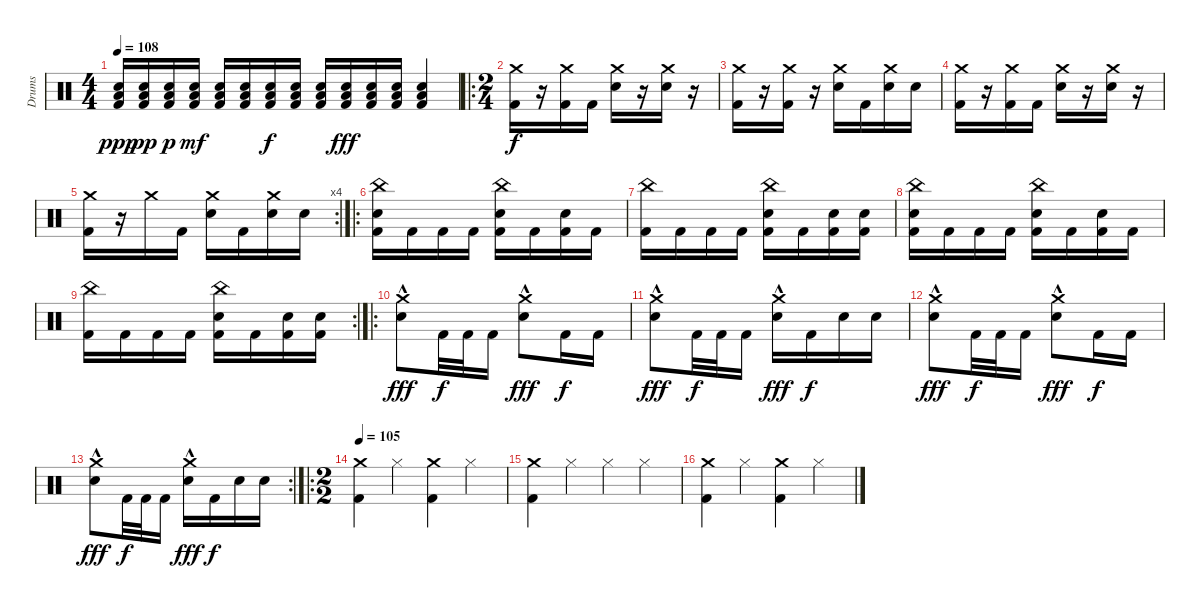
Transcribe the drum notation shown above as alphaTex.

\track ("Drums" "Drums") {instrument percussion}
\staff {score}
\articulation defaults
\ts (4 4)
\tempo 108
\clef neutral
\ks c
("Electric Snare (hit)" "Low Floor Tom (hit)" "Kick (hit) 2").16{dy ppp} ("Electric Snare (hit)" "Low Floor Tom (hit)" "Kick (hit) 2").16{dy pp} ("Electric Snare (hit)" "Low Floor Tom (hit)" "Kick (hit) 2").16{dy p} ("Electric Snare (hit)" "Low Floor Tom (hit)" "Kick (hit) 2").16{dy mf} ("Electric Snare (hit)" "Low Floor Tom (hit)" "Kick (hit) 2").16 ("Electric Snare (hit)" "Low Floor Tom (hit)" "Kick (hit) 2").16 ("Electric Snare (hit)" "Low Floor Tom (hit)" "Kick (hit) 2").16{dy f} ("Electric Snare (hit)" "Low Floor Tom (hit)" "Kick (hit) 2").16 ("Electric Snare (hit)" "Low Floor Tom (hit)" "Kick (hit) 2").16 ("Electric Snare (hit)" "Low Floor Tom (hit)" "Kick (hit) 2").16{dy fff} ("Electric Snare (hit)" "Low Floor Tom (hit)" "Kick (hit) 2").16 ("Electric Snare (hit)" "Low Floor Tom (hit)" "Kick (hit) 2").16 ("Electric Snare (hit)" "Low Floor Tom (hit)" "Kick (hit) 2").4 |
\ro
\ts (2 4)
("Crash medium (hit)" "Kick (hit) 2").16{dy f} r.16 ("Crash medium (hit)" "Kick (hit) 2").16 "Kick (hit) 2".16 ("Crash medium (hit)" "Electric Snare (hit)").16 r.16 ("Crash medium (hit)" "Electric Snare (hit)").16 r.16 |
("Crash medium (hit)" "Kick (hit) 2").16 r.16 ("Crash medium (hit)" "Kick (hit) 2").16 r.16 ("Crash medium (hit)" "Electric Snare (hit)").16 "Kick (hit) 2".16 ("Crash medium (hit)" "Electric Snare (hit)").16 "Electric Snare (hit)".16 |
("Crash medium (hit)" "Kick (hit) 2").16 r.16 ("Crash medium (hit)" "Kick (hit) 2").16 "Kick (hit) 2".16 ("Crash medium (hit)" "Electric Snare (hit)").16 r.16 ("Crash medium (hit)" "Electric Snare (hit)").16 r.16 |
\rc 4
("Crash medium (hit)" "Kick (hit) 2").16 r.16 "Crash medium (hit)".16 "Kick (hit) 2".16 ("Crash medium (hit)" "Electric Snare (hit)").16 "Kick (hit) 2".16 ("Crash medium (hit)" "Electric Snare (hit)").16 "Electric Snare (hit)".16 |
\ro
("China (hit)" "Electric Snare (hit)" "Kick (hit) 2").16 "Kick (hit) 2".16 "Kick (hit) 2".16 "Kick (hit) 2".16 ("China (hit)" "Electric Snare (hit)" "Kick (hit) 2").16 "Kick (hit) 2".16 ("Electric Snare (hit)" "Kick (hit) 2").16 "Kick (hit) 2".16 |
("China (hit)" "Kick (hit) 2").16 "Kick (hit) 2".16 "Kick (hit) 2".16 "Kick (hit) 2".16 ("China (hit)" "Electric Snare (hit)" "Kick (hit) 2").16 "Kick (hit) 2".16 ("Electric Snare (hit)" "Kick (hit) 2").16 ("Electric Snare (hit)" "Kick (hit) 2").16 |
("China (hit)" "Electric Snare (hit)" "Kick (hit) 2").16 "Kick (hit) 2".16 "Kick (hit) 2".16 "Kick (hit) 2".16 ("China (hit)" "Electric Snare (hit)" "Kick (hit) 2").16 "Kick (hit) 2".16 ("Electric Snare (hit)" "Kick (hit) 2").16 "Kick (hit) 2".16 |
\rc 2
("China (hit)" "Kick (hit) 2").16 "Kick (hit) 2".16 "Kick (hit) 2".16 "Kick (hit) 2".16 ("China (hit)" "Electric Snare (hit)" "Kick (hit) 2").16 "Kick (hit) 2".16 ("Electric Snare (hit)" "Kick (hit) 2").16 ("Electric Snare (hit)" "Kick (hit) 2").16 |
\ro
("Crash medium (hit)" "Electric Snare (hit)"{hac}).8{dy fff} "Kick (hit) 2".32{dy f} "Kick (hit) 2".32 "Kick (hit) 2".16 ("Crash medium (hit)" "Electric Snare (hit)"{hac}).8{dy fff} "Kick (hit) 2".16{dy f} "Kick (hit) 2".16 |
("Crash medium (hit)" "Electric Snare (hit)"{hac}).8{dy fff} "Kick (hit) 2".32{dy f} "Kick (hit) 2".32 "Kick (hit) 2".16 ("Crash medium (hit)" "Electric Snare (hit)"{hac}).16{dy fff} "Kick (hit) 2".16{dy f} "Electric Snare (hit)".16 "Electric Snare (hit)".16 |
("Crash medium (hit)" "Electric Snare (hit)"{hac}).8{dy fff} "Kick (hit) 2".32{dy f} "Kick (hit) 2".32 "Kick (hit) 2".16 ("Crash medium (hit)" "Electric Snare (hit)"{hac}).8{dy fff} "Kick (hit) 2".16{dy f} "Kick (hit) 2".16 |
\rc 2
("Crash medium (hit)" "Electric Snare (hit)"{hac}).8{dy fff} "Kick (hit) 2".32{dy f} "Kick (hit) 2".32 "Kick (hit) 2".16 ("Crash medium (hit)" "Electric Snare (hit)"{hac}).16{dy fff} "Kick (hit) 2".16{dy f} "Electric Snare (hit)".16 "Electric Snare (hit)".16 |
\ro
\ts (2 2)
\tempo 105
("Crash medium (hit)" "Kick (hit) 2").4 "Hi-Hat (closed)".4 ("Crash medium (hit)" "Kick (hit) 2").4 "Hi-Hat (closed)".4 |
("Crash medium (hit)" "Kick (hit) 2").4 "Hi-Hat (closed)".4 "Hi-Hat (closed)".4 "Hi-Hat (closed)".4 |
("Crash medium (hit)" "Kick (hit) 2").4 "Hi-Hat (closed)".4 ("Crash medium (hit)" "Kick (hit) 2").4 "Hi-Hat (closed)".4
